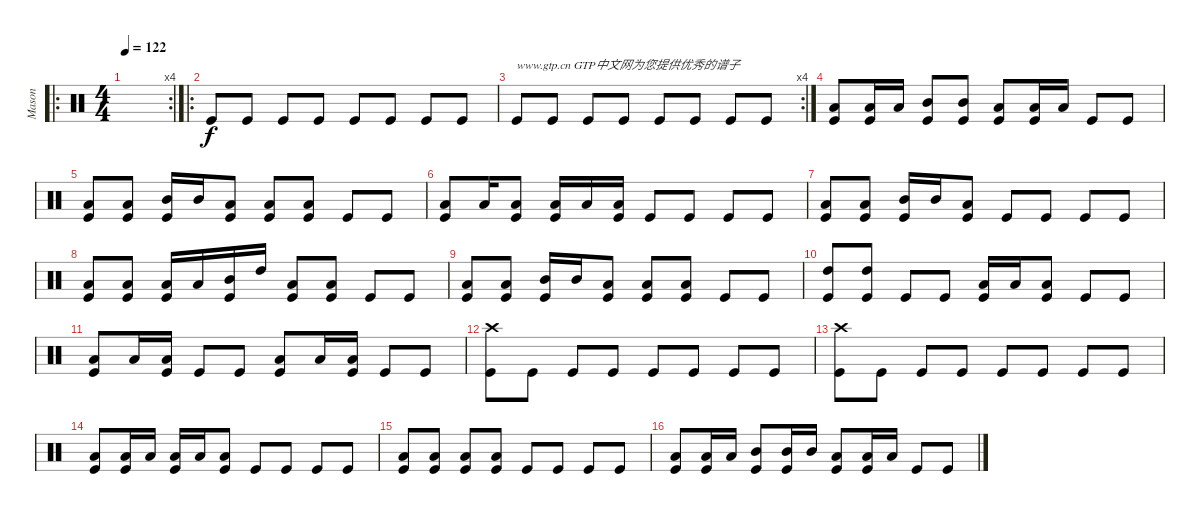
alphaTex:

\track ("Mason" "Mason") {instrument percussion}
\staff {score}
\articulation defaults
\ro
\rc 4
\ts (4 4)
\tempo 122
\clef neutral
\ks c
|
\ro "Kick (hit)".8 "Kick (hit)".8 "Kick (hit)".8 "Kick (hit)".8 "Kick (hit)".8 "Kick (hit)".8 "Kick (hit)".8 "Kick (hit)".8
|
\rc 4 "Kick (hit)".8{txt "www.gtp.cn GTP中文网为您提供优秀的谱子"} "Kick (hit)".8 "Kick (hit)".8 "Kick (hit)".8 "Kick (hit)".8 "Kick (hit)".8 "Kick (hit)".8 "Kick (hit)".8
|
("Kick (hit)" "Low Tom (hit)").8 ("Kick (hit)" "Low Tom (hit)").16 "Low Tom (hit)".16 ("Kick (hit)" "Mid Tom (hit)").8 ("Kick (hit)" "Mid Tom (hit)").8 ("Kick (hit)" "Low Floor Tom (hit)").8 ("Kick (hit)" "Low Floor Tom (hit)").16 "Low Floor Tom (hit)".16 "Kick (hit)".8 "Kick (hit)".8 |
("Kick (hit)" "Low Tom (hit)").8 ("Kick (hit)" "Low Tom (hit)").8 ("Kick (hit)" "Mid Tom (hit)").16 "Mid Tom (hit)".16 ("Kick (hit)" "Low Floor Tom (hit)").8 ("Kick (hit)" "Low Floor Tom (hit)").8 ("Kick (hit)" "Low Floor Tom (hit)").8 "Kick (hit)".8 "Kick (hit)".8 |
("Kick (hit)" "Low Tom (hit)").8 "Low Floor Tom (hit)".16 ("Kick (hit)" "Low Tom (hit)").8 ("Kick (hit)" "Low Tom (hit)").16 "Low Tom (hit)".16 ("Kick (hit)" "Low Floor Tom (hit)").16 "Kick (hit)".8 "Kick (hit)".8 "Kick (hit)".8 "Kick (hit)".8 |
("Kick (hit)" "Low Tom (hit)").8 ("Kick (hit)" "Low Floor Tom (hit)").8 ("Kick (hit)" "Mid Tom (hit)").16 "Mid Tom (hit)".16 ("Kick (hit)" "Low Tom (hit)").8 "Kick (hit)".8 "Kick (hit)".8 "Kick (hit)".8 "Kick (hit)".8 |
("Kick (hit)" "Low Floor Tom (hit)").8 ("Kick (hit)" "Low Floor Tom (hit)").8 ("Kick (hit)" "Low Tom (hit)").16 "Low Tom (hit)".16 ("Kick (hit)" "Mid Tom (hit)").16 "High Tom (hit)".16 ("Kick (hit)" "Low Floor Tom (hit)").8 ("Kick (hit)" "Low Floor Tom (hit)").8 "Kick (hit)".8 "Kick (hit)".8 |
("Kick (hit)" "Low Tom (hit)").8 ("Kick (hit)" "Low Tom (hit)").8 ("Kick (hit)" "Mid Tom (hit)").16 "Mid Tom (hit)".16 ("Kick (hit)" "Low Floor Tom (hit)").8 ("Kick (hit)" "Low Floor Tom (hit)").8 ("Kick (hit)" "Low Floor Tom (hit)").8 "Kick (hit)".8 "Kick (hit)".8 |
("Kick (hit)" "High Tom (hit)").8 ("Kick (hit)" "High Tom (hit)").8 "Kick (hit)".8 "Kick (hit)".8 ("Kick (hit)" "Low Floor Tom (hit)").16 "Low Tom (hit)".16 ("Kick (hit)" "Low Floor Tom (hit)").8 "Kick (hit)".8 "Kick (hit)".8 |
("Kick (hit)" "Low Tom (hit)").8 "Low Tom (hit)".16 ("Kick (hit)" "Low Tom (hit)").16 "Kick (hit)".8 "Kick (hit)".8 ("Kick (hit)" "Low Floor Tom (hit)").8 "Low Floor Tom (hit)".16 ("Kick (hit)" "Low Floor Tom (hit)").16 "Kick (hit)".8 "Kick (hit)".8 |
("Kick (hit)" "Crash high (hit)").8 "Kick (hit)".8 "Kick (hit)".8 "Kick (hit)".8 "Kick (hit)".8 "Kick (hit)".8 "Kick (hit)".8 "Kick (hit)".8 |
("Kick (hit)" "Crash high (hit)").8 "Kick (hit)".8 "Kick (hit)".8 "Kick (hit)".8 "Kick (hit)".8 "Kick (hit)".8 "Kick (hit)".8 "Kick (hit)".8 |
("Kick (hit)" "Low Tom (hit)").8 ("Kick (hit)" "Low Floor Tom (hit)").16 "Low Tom (hit)".16 ("Kick (hit)" "Low Floor Tom (hit)").16 "Low Floor Tom (hit)".16 ("Kick (hit)" "Low Floor Tom (hit)").8 "Kick (hit)".8 "Kick (hit)".8 "Kick (hit)".8 "Kick (hit)".8 |
("Kick (hit)" "Low Floor Tom (hit)").8 ("Kick (hit)" "Low Floor Tom (hit)").8 ("Kick (hit)" "Low Floor Tom (hit)").8 ("Kick (hit)" "Low Floor Tom (hit)").8 "Kick (hit)".8 "Kick (hit)".8 "Kick (hit)".8 "Kick (hit)".8 |
("Kick (hit)" "Low Tom (hit)").8 ("Kick (hit)" "Low Tom (hit)").16 "Low Tom (hit)".16 ("Kick (hit)" "Mid Tom (hit)").8 ("Kick (hit)" "Mid Tom (hit)").16 "Mid Tom (hit)".16 ("Kick (hit)" "Low Floor Tom (hit)").8 ("Kick (hit)" "Low Floor Tom (hit)").16 "Low Floor Tom (hit)".16 "Kick (hit)".8 "Kick (hit)".8
